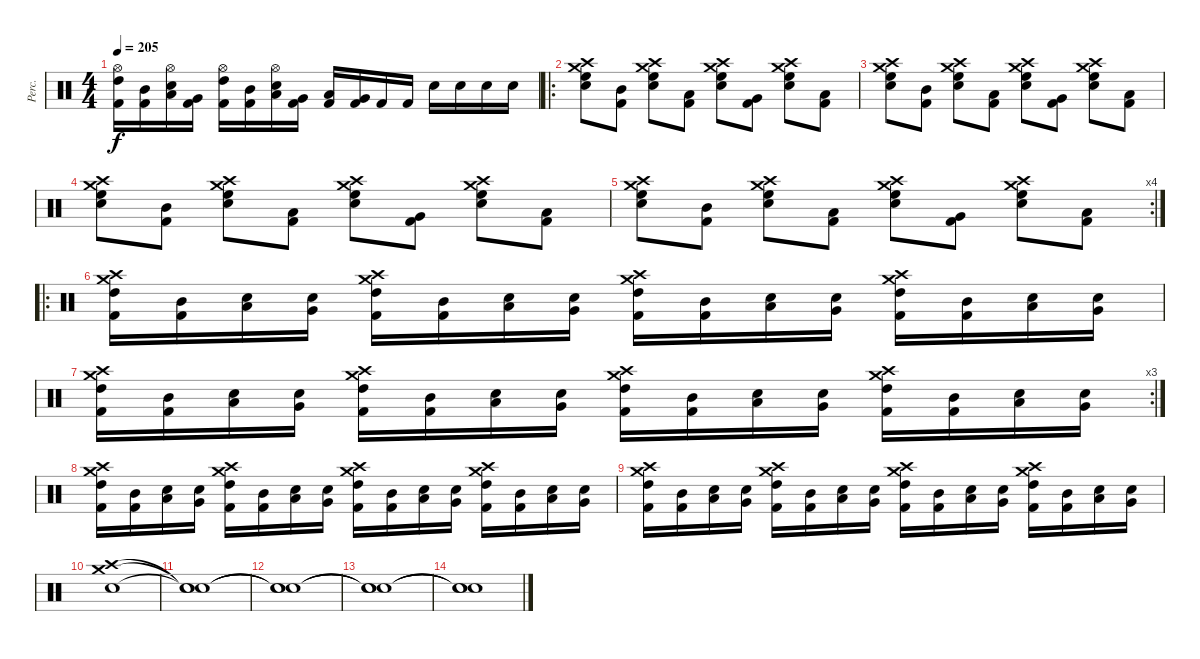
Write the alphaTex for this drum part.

\track ("Perc." "Perc.") {instrument percussion}
\staff {score}
\articulation defaults
\ts (4 4)
\tempo 205
\clef neutral
\ks c
("Hi-Hat (open)" "High Tom (hit)" "Kick (hit) 2").16{dy f} ("Mid Tom (hit)" "Kick (hit) 2").16 ("Hi-Hat (open)" "Low Tom (hit)" "Snare (hit) 2").16 ("Very Low Tom (hit)" "Kick (hit) 2").16 ("Hi-Hat (open)" "High Tom (hit)" "Kick (hit) 2").16 ("Mid Tom (hit)" "Kick (hit) 2").16 ("Hi-Hat (open)" "Low Tom (hit)" "Snare (hit) 2").16 ("Very Low Tom (hit)" "Kick (hit) 2").16 ("Low Tom (hit)" "Kick (hit) 2").16 ("Very Low Tom (hit)" "Kick (hit) 2").16 "Kick (hit) 2".16 "Kick (hit) 2".16 "Snare (hit) 2".16 "Snare (hit) 2".16 "Snare (hit) 2".16 "Snare (hit) 2".16 |
\ro
("Crash high (hit)" "Crash medium (hit)" "High Floor Tom (hit)" "Snare (hit) 2").8 ("Mid Tom (hit)" "Kick (hit) 2").8 ("Crash high (hit)" "Crash medium (hit)" "High Floor Tom (hit)" "Snare (hit) 2").8 ("Low Tom (hit)" "Kick (hit) 2").8 ("Crash high (hit)" "Crash medium (hit)" "High Floor Tom (hit)" "Snare (hit) 2").8 ("Very Low Tom (hit)" "Kick (hit) 2").8 ("Crash high (hit)" "Crash medium (hit)" "High Floor Tom (hit)" "Snare (hit) 2").8 ("Low Floor Tom (hit)" "Kick (hit) 2").8 |
("Crash high (hit)" "Crash medium (hit)" "High Floor Tom (hit)" "Snare (hit) 2").8 ("Mid Tom (hit)" "Kick (hit) 2").8 ("Crash high (hit)" "Crash medium (hit)" "High Floor Tom (hit)" "Snare (hit) 2").8 ("Low Tom (hit)" "Kick (hit) 2").8 ("Crash high (hit)" "Crash medium (hit)" "High Floor Tom (hit)" "Snare (hit) 2").8 ("Very Low Tom (hit)" "Kick (hit) 2").8 ("Crash high (hit)" "Crash medium (hit)" "High Floor Tom (hit)" "Snare (hit) 2").8 ("Low Floor Tom (hit)" "Kick (hit) 2").8 |
("Crash high (hit)" "Crash medium (hit)" "High Floor Tom (hit)" "Snare (hit) 2").8 ("Mid Tom (hit)" "Kick (hit) 2").8 ("Crash high (hit)" "Crash medium (hit)" "High Floor Tom (hit)" "Snare (hit) 2").8 ("Low Tom (hit)" "Kick (hit) 2").8 ("Crash high (hit)" "Crash medium (hit)" "High Floor Tom (hit)" "Snare (hit) 2").8 ("Very Low Tom (hit)" "Kick (hit) 2").8 ("Crash high (hit)" "Crash medium (hit)" "High Floor Tom (hit)" "Snare (hit) 2").8 ("Low Floor Tom (hit)" "Kick (hit) 2").8 |
\rc 4
("Crash high (hit)" "Crash medium (hit)" "High Floor Tom (hit)" "Snare (hit) 2").8 ("Mid Tom (hit)" "Kick (hit) 2").8 ("Crash high (hit)" "Crash medium (hit)" "High Floor Tom (hit)" "Snare (hit) 2").8 ("Low Tom (hit)" "Kick (hit) 2").8 ("Crash high (hit)" "Crash medium (hit)" "High Floor Tom (hit)" "Snare (hit) 2").8 ("Very Low Tom (hit)" "Kick (hit) 2").8 ("Crash high (hit)" "Crash medium (hit)" "High Floor Tom (hit)" "Snare (hit) 2").8 ("Low Floor Tom (hit)" "Kick (hit) 2").8 |
\ro
("Crash high (hit)" "Crash medium (hit)" "High Tom (hit)" "Kick (hit) 2").16 ("Mid Tom (hit)" "Kick (hit) 2").16 ("Low Tom (hit)" "Snare (hit) 2").16 ("Very Low Tom (hit)" "Snare (hit) 2").16 ("Crash high (hit)" "Crash medium (hit)" "High Tom (hit)" "Kick (hit) 2").16 ("Mid Tom (hit)" "Kick (hit) 2").16 ("Low Tom (hit)" "Snare (hit) 2").16 ("Very Low Tom (hit)" "Snare (hit) 2").16 ("Crash high (hit)" "Crash medium (hit)" "High Tom (hit)" "Kick (hit) 2").16 ("Mid Tom (hit)" "Kick (hit) 2").16 ("Low Tom (hit)" "Snare (hit) 2").16 ("Very Low Tom (hit)" "Snare (hit) 2").16 ("Crash high (hit)" "Crash medium (hit)" "High Tom (hit)" "Kick (hit) 2").16 ("Mid Tom (hit)" "Kick (hit) 2").16 ("Low Tom (hit)" "Snare (hit) 2").16 ("Very Low Tom (hit)" "Snare (hit) 2").16 |
\rc 3
("Crash high (hit)" "Crash medium (hit)" "High Tom (hit)" "Kick (hit) 2").16 ("Mid Tom (hit)" "Kick (hit) 2").16 ("Low Tom (hit)" "Snare (hit) 2").16 ("Very Low Tom (hit)" "Snare (hit) 2").16 ("Crash high (hit)" "Crash medium (hit)" "High Tom (hit)" "Kick (hit) 2").16 ("Mid Tom (hit)" "Kick (hit) 2").16 ("Low Tom (hit)" "Snare (hit) 2").16 ("Very Low Tom (hit)" "Snare (hit) 2").16 ("Crash high (hit)" "Crash medium (hit)" "High Tom (hit)" "Kick (hit) 2").16 ("Mid Tom (hit)" "Kick (hit) 2").16 ("Low Tom (hit)" "Snare (hit) 2").16 ("Very Low Tom (hit)" "Snare (hit) 2").16 ("Crash high (hit)" "Crash medium (hit)" "High Tom (hit)" "Kick (hit) 2").16 ("Mid Tom (hit)" "Kick (hit) 2").16 ("Low Tom (hit)" "Snare (hit) 2").16 ("Very Low Tom (hit)" "Snare (hit) 2").16 |
("Crash high (hit)" "Crash medium (hit)" "High Tom (hit)" "Kick (hit) 2").16 ("Mid Tom (hit)" "Kick (hit) 2").16 ("Low Tom (hit)" "Snare (hit) 2").16 ("Very Low Tom (hit)" "Snare (hit) 2").16 ("Crash high (hit)" "Crash medium (hit)" "High Tom (hit)" "Kick (hit) 2").16 ("Mid Tom (hit)" "Kick (hit) 2").16 ("Low Tom (hit)" "Snare (hit) 2").16 ("Very Low Tom (hit)" "Snare (hit) 2").16 ("Crash high (hit)" "Crash medium (hit)" "High Tom (hit)" "Kick (hit) 2").16 ("Mid Tom (hit)" "Kick (hit) 2").16 ("Low Tom (hit)" "Snare (hit) 2").16 ("Very Low Tom (hit)" "Snare (hit) 2").16 ("Crash high (hit)" "Crash medium (hit)" "High Tom (hit)" "Kick (hit) 2").16 ("Mid Tom (hit)" "Kick (hit) 2").16 ("Low Tom (hit)" "Snare (hit) 2").16 ("Very Low Tom (hit)" "Snare (hit) 2").16 |
("Crash high (hit)" "Crash medium (hit)" "High Tom (hit)" "Kick (hit) 2").16 ("Mid Tom (hit)" "Kick (hit) 2").16 ("Low Tom (hit)" "Snare (hit) 2").16 ("Very Low Tom (hit)" "Snare (hit) 2").16 ("Crash high (hit)" "Crash medium (hit)" "High Tom (hit)" "Kick (hit) 2").16 ("Mid Tom (hit)" "Kick (hit) 2").16 ("Low Tom (hit)" "Snare (hit) 2").16 ("Very Low Tom (hit)" "Snare (hit) 2").16 ("Crash high (hit)" "Crash medium (hit)" "High Tom (hit)" "Kick (hit) 2").16 ("Mid Tom (hit)" "Kick (hit) 2").16 ("Low Tom (hit)" "Snare (hit) 2").16 ("Very Low Tom (hit)" "Snare (hit) 2").16 ("Crash high (hit)" "Crash medium (hit)" "High Tom (hit)" "Kick (hit) 2").16 ("Mid Tom (hit)" "Kick (hit) 2").16 ("Low Tom (hit)" "Snare (hit) 2").16 ("Very Low Tom (hit)" "Snare (hit) 2").16 |
("Crash high (hit)" "Crash medium (hit)" "Snare (hit) 2").1 |
("Snare (hit)"{t} "Snare (hit)"{t} "Snare (hit)"{t}).1 |
("Snare (hit)"{t} "Snare (hit)"{t} "Snare (hit)"{t}).1{volume 0} |
("Snare (hit)"{t} "Snare (hit)"{t} "Snare (hit)"{t}).1 |
("Snare (hit)"{t} "Snare (hit)"{t} "Snare (hit)"{t}).1
